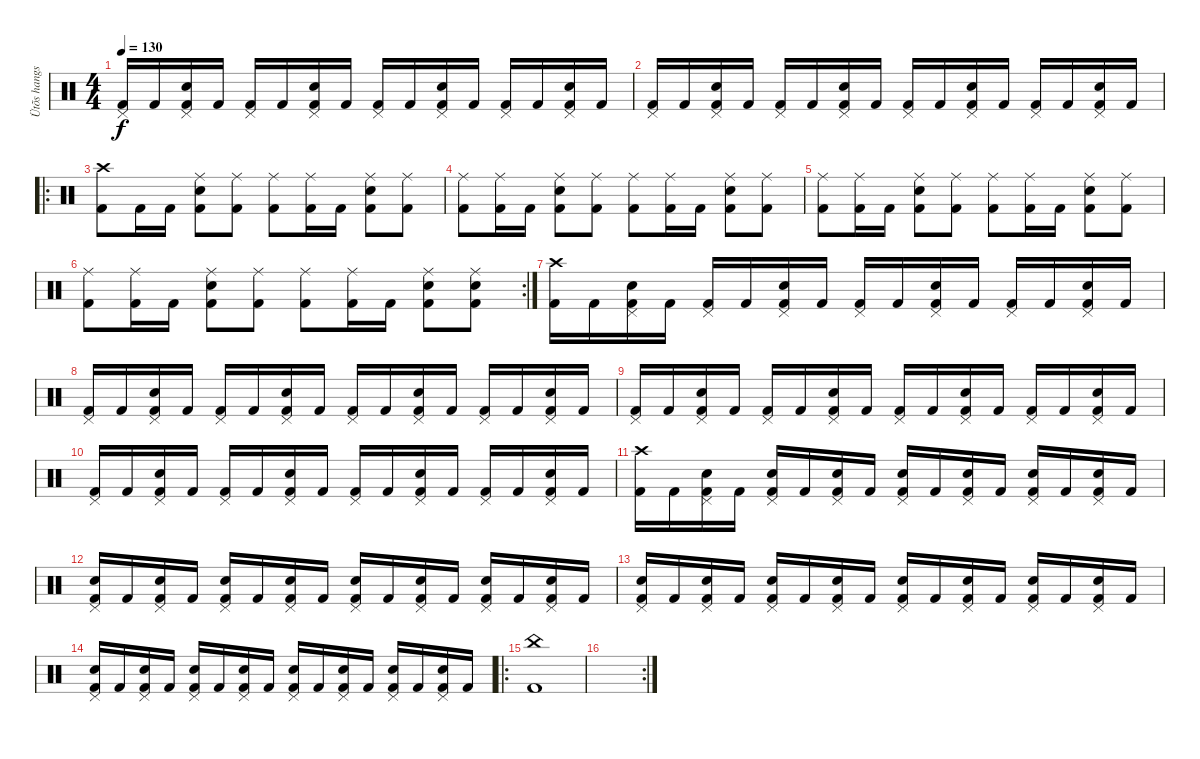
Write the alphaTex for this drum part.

\track ("Ütõs hangszer" "Ütõs hangs") {instrument percussion}
\staff {score}
\articulation defaults
\ts (4 4)
\tempo 130
\clef neutral
\ks c
("Pedal Hi-Hat (hit)" "Kick (hit) 2").16{dy f} "Kick (hit) 2".16 ("Pedal Hi-Hat (hit)" "Electric Snare (hit)" "Kick (hit) 2").16 "Kick (hit) 2".16 ("Pedal Hi-Hat (hit)" "Kick (hit) 2").16 "Kick (hit) 2".16 ("Pedal Hi-Hat (hit)" "Electric Snare (hit)" "Kick (hit) 2").16 "Kick (hit) 2".16 ("Pedal Hi-Hat (hit)" "Kick (hit) 2").16 "Kick (hit) 2".16 ("Pedal Hi-Hat (hit)" "Electric Snare (hit)" "Kick (hit) 2").16 "Kick (hit) 2".16 ("Pedal Hi-Hat (hit)" "Kick (hit) 2").16 "Kick (hit) 2".16 ("Pedal Hi-Hat (hit)" "Electric Snare (hit)" "Kick (hit) 2").16 "Kick (hit) 2".16 |
("Pedal Hi-Hat (hit)" "Kick (hit) 2").16 "Kick (hit) 2".16 ("Pedal Hi-Hat (hit)" "Electric Snare (hit)" "Kick (hit) 2").16 "Kick (hit) 2".16 ("Pedal Hi-Hat (hit)" "Kick (hit) 2").16 "Kick (hit) 2".16 ("Pedal Hi-Hat (hit)" "Electric Snare (hit)" "Kick (hit) 2").16 "Kick (hit) 2".16 ("Pedal Hi-Hat (hit)" "Kick (hit) 2").16 "Kick (hit) 2".16 ("Pedal Hi-Hat (hit)" "Electric Snare (hit)" "Kick (hit) 2").16 "Kick (hit) 2".16 ("Pedal Hi-Hat (hit)" "Kick (hit) 2").16 "Kick (hit) 2".16 ("Pedal Hi-Hat (hit)" "Electric Snare (hit)" "Kick (hit) 2").16 "Kick (hit) 2".16 |
\ro
("Crash high (hit)" "Kick (hit) 2").8 "Kick (hit) 2".16 "Kick (hit) 2".16 ("Ride (middle)" "Electric Snare (hit)" "Kick (hit) 2").8 ("Ride (middle)" "Kick (hit) 2").8 ("Ride (middle)" "Kick (hit) 2").8 ("Ride (middle)" "Kick (hit) 2").16 "Kick (hit) 2".16 ("Ride (middle)" "Electric Snare (hit)" "Kick (hit) 2").8 ("Ride (middle)" "Kick (hit) 2").8 |
("Ride (middle)" "Kick (hit) 2").8 ("Ride (middle)" "Kick (hit) 2").16 "Kick (hit) 2".16 ("Ride (middle)" "Electric Snare (hit)" "Kick (hit) 2").8 ("Ride (middle)" "Kick (hit) 2").8 ("Ride (middle)" "Kick (hit) 2").8 ("Ride (middle)" "Kick (hit) 2").16 "Kick (hit) 2".16 ("Ride (middle)" "Electric Snare (hit)" "Kick (hit) 2").8 ("Ride (middle)" "Kick (hit) 2").8 |
("Ride (middle)" "Kick (hit) 2").8 ("Ride (middle)" "Kick (hit) 2").16 "Kick (hit) 2".16 ("Ride (middle)" "Electric Snare (hit)" "Kick (hit) 2").8 ("Ride (middle)" "Kick (hit) 2").8 ("Ride (middle)" "Kick (hit) 2").8 ("Ride (middle)" "Kick (hit) 2").16 "Kick (hit) 2".16 ("Ride (middle)" "Electric Snare (hit)" "Kick (hit) 2").8 ("Ride (middle)" "Kick (hit) 2").8 |
\rc 2
("Ride (middle)" "Kick (hit) 2").8 ("Ride (middle)" "Kick (hit) 2").16 "Kick (hit) 2".16 ("Ride (middle)" "Electric Snare (hit)" "Kick (hit) 2").8 ("Ride (middle)" "Kick (hit) 2").8 ("Ride (middle)" "Kick (hit) 2").8 ("Ride (middle)" "Kick (hit) 2").16 "Kick (hit) 2".16 ("Ride (middle)" "Electric Snare (hit)" "Kick (hit) 2").8 ("Ride (middle)" "Electric Snare (hit)" "Kick (hit) 2").8 |
("Crash high (hit)" "Kick (hit) 2").16 "Kick (hit) 2".16 ("Pedal Hi-Hat (hit)" "Electric Snare (hit)" "Kick (hit) 2").16 "Kick (hit) 2".16 ("Pedal Hi-Hat (hit)" "Kick (hit) 2").16 "Kick (hit) 2".16 ("Pedal Hi-Hat (hit)" "Electric Snare (hit)" "Kick (hit) 2").16 "Kick (hit) 2".16 ("Pedal Hi-Hat (hit)" "Kick (hit) 2").16 "Kick (hit) 2".16 ("Pedal Hi-Hat (hit)" "Electric Snare (hit)" "Kick (hit) 2").16 "Kick (hit) 2".16 ("Pedal Hi-Hat (hit)" "Kick (hit) 2").16 "Kick (hit) 2".16 ("Pedal Hi-Hat (hit)" "Electric Snare (hit)" "Kick (hit) 2").16 "Kick (hit) 2".16 |
("Pedal Hi-Hat (hit)" "Kick (hit) 2").16 "Kick (hit) 2".16 ("Pedal Hi-Hat (hit)" "Electric Snare (hit)" "Kick (hit) 2").16 "Kick (hit) 2".16 ("Pedal Hi-Hat (hit)" "Kick (hit) 2").16 "Kick (hit) 2".16 ("Pedal Hi-Hat (hit)" "Electric Snare (hit)" "Kick (hit) 2").16 "Kick (hit) 2".16 ("Pedal Hi-Hat (hit)" "Kick (hit) 2").16 "Kick (hit) 2".16 ("Pedal Hi-Hat (hit)" "Electric Snare (hit)" "Kick (hit) 2").16 "Kick (hit) 2".16 ("Pedal Hi-Hat (hit)" "Kick (hit) 2").16 "Kick (hit) 2".16 ("Pedal Hi-Hat (hit)" "Electric Snare (hit)" "Kick (hit) 2").16 "Kick (hit) 2".16 |
("Pedal Hi-Hat (hit)" "Kick (hit) 2").16 "Kick (hit) 2".16 ("Pedal Hi-Hat (hit)" "Electric Snare (hit)" "Kick (hit) 2").16 "Kick (hit) 2".16 ("Pedal Hi-Hat (hit)" "Kick (hit) 2").16 "Kick (hit) 2".16 ("Pedal Hi-Hat (hit)" "Electric Snare (hit)" "Kick (hit) 2").16 "Kick (hit) 2".16 ("Pedal Hi-Hat (hit)" "Kick (hit) 2").16 "Kick (hit) 2".16 ("Pedal Hi-Hat (hit)" "Electric Snare (hit)" "Kick (hit) 2").16 "Kick (hit) 2".16 ("Pedal Hi-Hat (hit)" "Kick (hit) 2").16 "Kick (hit) 2".16 ("Pedal Hi-Hat (hit)" "Electric Snare (hit)" "Kick (hit) 2").16 "Kick (hit) 2".16 |
("Pedal Hi-Hat (hit)" "Kick (hit) 2").16 "Kick (hit) 2".16 ("Pedal Hi-Hat (hit)" "Electric Snare (hit)" "Kick (hit) 2").16 "Kick (hit) 2".16 ("Pedal Hi-Hat (hit)" "Kick (hit) 2").16 "Kick (hit) 2".16 ("Pedal Hi-Hat (hit)" "Electric Snare (hit)" "Kick (hit) 2").16 "Kick (hit) 2".16 ("Pedal Hi-Hat (hit)" "Kick (hit) 2").16 "Kick (hit) 2".16 ("Pedal Hi-Hat (hit)" "Electric Snare (hit)" "Kick (hit) 2").16 "Kick (hit) 2".16 ("Pedal Hi-Hat (hit)" "Kick (hit) 2").16 "Kick (hit) 2".16 ("Pedal Hi-Hat (hit)" "Electric Snare (hit)" "Kick (hit) 2").16 "Kick (hit) 2".16 |
("Crash high (hit)" "Kick (hit) 2").16 "Kick (hit) 2".16 ("Pedal Hi-Hat (hit)" "Electric Snare (hit)" "Kick (hit) 2").16 "Kick (hit) 2".16 ("Pedal Hi-Hat (hit)" "Electric Snare (hit)" "Kick (hit) 2").16 "Kick (hit) 2".16 ("Pedal Hi-Hat (hit)" "Electric Snare (hit)" "Kick (hit) 2").16 "Kick (hit) 2".16 ("Pedal Hi-Hat (hit)" "Electric Snare (hit)" "Kick (hit) 2").16 "Kick (hit) 2".16 ("Pedal Hi-Hat (hit)" "Electric Snare (hit)" "Kick (hit) 2").16 "Kick (hit) 2".16 ("Pedal Hi-Hat (hit)" "Electric Snare (hit)" "Kick (hit) 2").16 "Kick (hit) 2".16 ("Pedal Hi-Hat (hit)" "Electric Snare (hit)" "Kick (hit) 2").16 "Kick (hit) 2".16 |
("Pedal Hi-Hat (hit)" "Electric Snare (hit)" "Kick (hit) 2").16 "Kick (hit) 2".16 ("Pedal Hi-Hat (hit)" "Electric Snare (hit)" "Kick (hit) 2").16 "Kick (hit) 2".16 ("Pedal Hi-Hat (hit)" "Electric Snare (hit)" "Kick (hit) 2").16 "Kick (hit) 2".16 ("Pedal Hi-Hat (hit)" "Electric Snare (hit)" "Kick (hit) 2").16 "Kick (hit) 2".16 ("Pedal Hi-Hat (hit)" "Electric Snare (hit)" "Kick (hit) 2").16 "Kick (hit) 2".16 ("Pedal Hi-Hat (hit)" "Electric Snare (hit)" "Kick (hit) 2").16 "Kick (hit) 2".16 ("Pedal Hi-Hat (hit)" "Electric Snare (hit)" "Kick (hit) 2").16 "Kick (hit) 2".16 ("Pedal Hi-Hat (hit)" "Electric Snare (hit)" "Kick (hit) 2").16 "Kick (hit) 2".16 |
("Pedal Hi-Hat (hit)" "Electric Snare (hit)" "Kick (hit) 2").16 "Kick (hit) 2".16 ("Pedal Hi-Hat (hit)" "Electric Snare (hit)" "Kick (hit) 2").16 "Kick (hit) 2".16 ("Pedal Hi-Hat (hit)" "Electric Snare (hit)" "Kick (hit) 2").16 "Kick (hit) 2".16 ("Pedal Hi-Hat (hit)" "Electric Snare (hit)" "Kick (hit) 2").16 "Kick (hit) 2".16 ("Pedal Hi-Hat (hit)" "Electric Snare (hit)" "Kick (hit) 2").16 "Kick (hit) 2".16 ("Pedal Hi-Hat (hit)" "Electric Snare (hit)" "Kick (hit) 2").16 "Kick (hit) 2".16 ("Pedal Hi-Hat (hit)" "Electric Snare (hit)" "Kick (hit) 2").16 "Kick (hit) 2".16 ("Pedal Hi-Hat (hit)" "Electric Snare (hit)" "Kick (hit) 2").16 "Kick (hit) 2".16 |
("Pedal Hi-Hat (hit)" "Electric Snare (hit)" "Kick (hit) 2").16 "Kick (hit) 2".16 ("Pedal Hi-Hat (hit)" "Electric Snare (hit)" "Kick (hit) 2").16 "Kick (hit) 2".16 ("Pedal Hi-Hat (hit)" "Electric Snare (hit)" "Kick (hit) 2").16 "Kick (hit) 2".16 ("Pedal Hi-Hat (hit)" "Electric Snare (hit)" "Kick (hit) 2").16 "Kick (hit) 2".16 ("Pedal Hi-Hat (hit)" "Electric Snare (hit)" "Kick (hit) 2").16 "Kick (hit) 2".16 ("Pedal Hi-Hat (hit)" "Electric Snare (hit)" "Kick (hit) 2").16 "Kick (hit) 2".16 ("Pedal Hi-Hat (hit)" "Electric Snare (hit)" "Kick (hit) 2").16 "Kick (hit) 2".16 ("Pedal Hi-Hat (hit)" "Electric Snare (hit)" "Kick (hit) 2").16 "Kick (hit) 2".16 |
\ro
("China (hit)" "Kick (hit) 2").1 |
\rc 2
